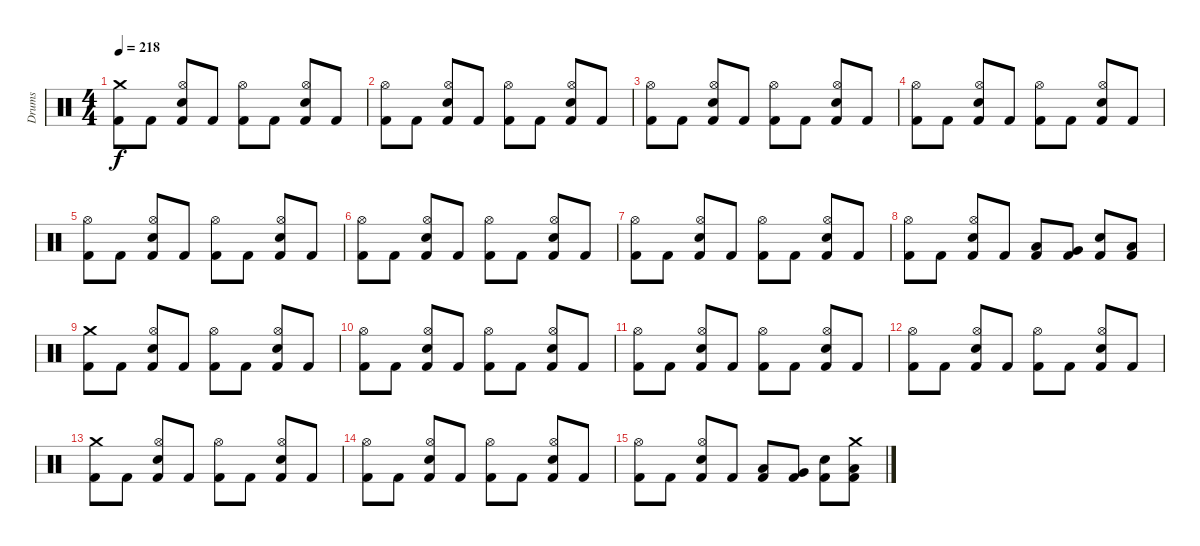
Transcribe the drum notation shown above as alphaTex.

\track ("Drums" "Drums") {instrument percussion}
\staff {score}
\articulation defaults
\ts (4 4)
\tempo 218
\clef neutral
\ks c
("Crash medium (hit)" "Kick (hit) 2").8{dy f} "Kick (hit) 2".8 ("Hi-Hat (open)" "Snare (hit) 2" "Kick (hit) 2").8 "Kick (hit) 2".8 ("Hi-Hat (open)" "Kick (hit) 2").8 "Kick (hit) 2".8 ("Hi-Hat (open)" "Snare (hit) 2" "Kick (hit) 2").8 "Kick (hit) 2".8 |
("Hi-Hat (open)" "Kick (hit) 2").8 "Kick (hit) 2".8 ("Hi-Hat (open)" "Snare (hit) 2" "Kick (hit) 2").8 "Kick (hit) 2".8 ("Hi-Hat (open)" "Kick (hit) 2").8 "Kick (hit) 2".8 ("Hi-Hat (open)" "Snare (hit) 2" "Kick (hit) 2").8 "Kick (hit) 2".8 |
("Hi-Hat (open)" "Kick (hit) 2").8 "Kick (hit) 2".8 ("Hi-Hat (open)" "Snare (hit) 2" "Kick (hit) 2").8 "Kick (hit) 2".8 ("Hi-Hat (open)" "Kick (hit) 2").8 "Kick (hit) 2".8 ("Hi-Hat (open)" "Snare (hit) 2" "Kick (hit) 2").8 "Kick (hit) 2".8 |
("Hi-Hat (open)" "Kick (hit) 2").8 "Kick (hit) 2".8 ("Hi-Hat (open)" "Snare (hit) 2" "Kick (hit) 2").8 "Kick (hit) 2".8 ("Hi-Hat (open)" "Kick (hit) 2").8 "Kick (hit) 2".8 ("Hi-Hat (open)" "Snare (hit) 2" "Kick (hit) 2").8 "Kick (hit) 2".8 |
("Hi-Hat (open)" "Kick (hit) 2").8 "Kick (hit) 2".8 ("Hi-Hat (open)" "Snare (hit) 2" "Kick (hit) 2").8 "Kick (hit) 2".8 ("Hi-Hat (open)" "Kick (hit) 2").8 "Kick (hit) 2".8 ("Hi-Hat (open)" "Snare (hit) 2" "Kick (hit) 2").8 "Kick (hit) 2".8 |
("Hi-Hat (open)" "Kick (hit) 2").8 "Kick (hit) 2".8 ("Hi-Hat (open)" "Snare (hit) 2" "Kick (hit) 2").8 "Kick (hit) 2".8 ("Hi-Hat (open)" "Kick (hit) 2").8 "Kick (hit) 2".8 ("Hi-Hat (open)" "Snare (hit) 2" "Kick (hit) 2").8 "Kick (hit) 2".8 |
("Hi-Hat (open)" "Kick (hit) 2").8 "Kick (hit) 2".8 ("Hi-Hat (open)" "Snare (hit) 2" "Kick (hit) 2").8 "Kick (hit) 2".8 ("Hi-Hat (open)" "Kick (hit) 2").8 "Kick (hit) 2".8 ("Hi-Hat (open)" "Snare (hit) 2" "Kick (hit) 2").8 "Kick (hit) 2".8 |
("Hi-Hat (open)" "Kick (hit) 2").8 "Kick (hit) 2".8 ("Hi-Hat (open)" "Snare (hit) 2" "Kick (hit) 2").8 "Kick (hit) 2".8 ("Low Tom (hit)" "Kick (hit) 2").8 ("Very Low Tom (hit)" "Kick (hit) 2").8 ("Snare (hit) 2" "Kick (hit) 2").8 ("Low Floor Tom (hit)" "Kick (hit) 2").8 |
("Crash medium (hit)" "Kick (hit) 2").8 "Kick (hit) 2".8 ("Hi-Hat (open)" "Snare (hit) 2" "Kick (hit) 2").8 "Kick (hit) 2".8 ("Hi-Hat (open)" "Kick (hit) 2").8 "Kick (hit) 2".8 ("Hi-Hat (open)" "Snare (hit) 2" "Kick (hit) 2").8 "Kick (hit) 2".8 |
("Hi-Hat (open)" "Kick (hit) 2").8 "Kick (hit) 2".8 ("Hi-Hat (open)" "Snare (hit) 2" "Kick (hit) 2").8 "Kick (hit) 2".8 ("Hi-Hat (open)" "Kick (hit) 2").8 "Kick (hit) 2".8 ("Hi-Hat (open)" "Snare (hit) 2" "Kick (hit) 2").8 "Kick (hit) 2".8 |
("Hi-Hat (open)" "Kick (hit) 2").8 "Kick (hit) 2".8 ("Hi-Hat (open)" "Snare (hit) 2" "Kick (hit) 2").8 "Kick (hit) 2".8 ("Hi-Hat (open)" "Kick (hit) 2").8 "Kick (hit) 2".8 ("Hi-Hat (open)" "Snare (hit) 2" "Kick (hit) 2").8 "Kick (hit) 2".8 |
("Hi-Hat (open)" "Kick (hit) 2").8 "Kick (hit) 2".8 ("Hi-Hat (open)" "Snare (hit) 2" "Kick (hit) 2").8 "Kick (hit) 2".8 ("Hi-Hat (open)" "Kick (hit) 2").8 "Kick (hit) 2".8 ("Hi-Hat (open)" "Snare (hit) 2" "Kick (hit) 2").8 "Kick (hit) 2".8 |
("Crash medium (hit)" "Kick (hit) 2").8 "Kick (hit) 2".8 ("Hi-Hat (open)" "Snare (hit) 2" "Kick (hit) 2").8 "Kick (hit) 2".8 ("Hi-Hat (open)" "Kick (hit) 2").8 "Kick (hit) 2".8 ("Hi-Hat (open)" "Snare (hit) 2" "Kick (hit) 2").8 "Kick (hit) 2".8 |
("Hi-Hat (open)" "Kick (hit) 2").8 "Kick (hit) 2".8 ("Hi-Hat (open)" "Snare (hit) 2" "Kick (hit) 2").8 "Kick (hit) 2".8 ("Hi-Hat (open)" "Kick (hit) 2").8 "Kick (hit) 2".8 ("Hi-Hat (open)" "Snare (hit) 2" "Kick (hit) 2").8 "Kick (hit) 2".8 |
("Hi-Hat (open)" "Kick (hit) 2").8 "Kick (hit) 2".8 ("Hi-Hat (open)" "Snare (hit) 2" "Kick (hit) 2").8 "Kick (hit) 2".8 ("Low Tom (hit)" "Kick (hit) 2").8 ("Very Low Tom (hit)" "Kick (hit) 2").8 ("Snare (hit) 2" "Kick (hit) 2").8 ("Crash medium (hit)" "Low Floor Tom (hit)" "Kick (hit) 2").8
